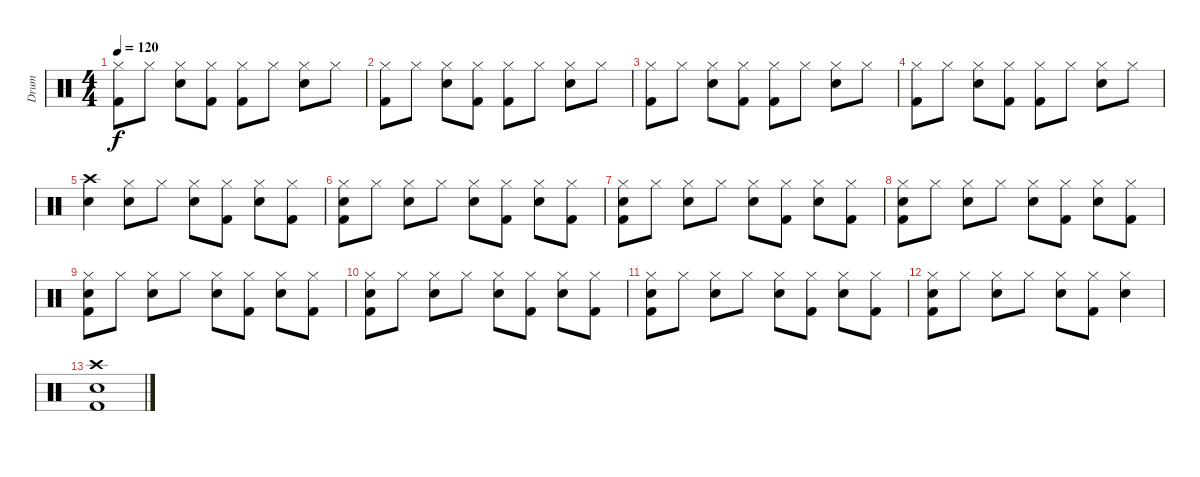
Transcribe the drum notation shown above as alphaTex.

\track ("Drum" "Drum") {instrument percussion}
\staff {score}
\articulation defaults
\ts (4 4)
\tempo 120
\clef neutral
\ks c
("Hi-Hat (closed)" "Kick (hit) 2").8{dy f} "Hi-Hat (closed)".8 ("Hi-Hat (closed)" "Snare (hit) 2").8 ("Hi-Hat (closed)" "Kick (hit) 2").8 ("Hi-Hat (closed)" "Kick (hit) 2").8 "Hi-Hat (closed)".8 ("Hi-Hat (closed)" "Snare (hit) 2").8 "Hi-Hat (closed)".8 |
("Hi-Hat (closed)" "Kick (hit) 2").8 "Hi-Hat (closed)".8 ("Hi-Hat (closed)" "Snare (hit) 2").8 ("Hi-Hat (closed)" "Kick (hit) 2").8 ("Hi-Hat (closed)" "Kick (hit) 2").8 "Hi-Hat (closed)".8 ("Hi-Hat (closed)" "Snare (hit) 2").8 "Hi-Hat (closed)".8 |
("Hi-Hat (closed)" "Kick (hit) 2").8 "Hi-Hat (closed)".8 ("Hi-Hat (closed)" "Snare (hit) 2").8 ("Hi-Hat (closed)" "Kick (hit) 2").8 ("Hi-Hat (closed)" "Kick (hit) 2").8 "Hi-Hat (closed)".8 ("Hi-Hat (closed)" "Snare (hit) 2").8 "Hi-Hat (closed)".8 |
("Hi-Hat (closed)" "Kick (hit) 2").8 "Hi-Hat (closed)".8 ("Hi-Hat (closed)" "Snare (hit) 2").8 ("Hi-Hat (closed)" "Kick (hit) 2").8 ("Hi-Hat (closed)" "Kick (hit) 2").8 "Hi-Hat (closed)".8 ("Hi-Hat (closed)" "Snare (hit) 2").8 "Hi-Hat (closed)".8 |
("Crash high (hit)" "Snare (hit) 2").4 ("Hi-Hat (closed)" "Snare (hit) 2").8 "Hi-Hat (closed)".8 ("Hi-Hat (closed)" "Snare (hit) 2").8 ("Hi-Hat (closed)" "Kick (hit) 2").8 ("Hi-Hat (closed)" "Snare (hit) 2").8 ("Hi-Hat (closed)" "Kick (hit) 2").8 |
("Hi-Hat (closed)" "Snare (hit) 2" "Kick (hit) 2").8 "Hi-Hat (closed)".8 ("Hi-Hat (closed)" "Snare (hit) 2").8 "Hi-Hat (closed)".8 ("Hi-Hat (closed)" "Snare (hit) 2").8 ("Hi-Hat (closed)" "Kick (hit) 2").8 ("Hi-Hat (closed)" "Snare (hit) 2").8 ("Hi-Hat (closed)" "Kick (hit) 2").8 |
("Hi-Hat (closed)" "Snare (hit) 2" "Kick (hit) 2").8 "Hi-Hat (closed)".8 ("Hi-Hat (closed)" "Snare (hit) 2").8 "Hi-Hat (closed)".8 ("Hi-Hat (closed)" "Snare (hit) 2").8 ("Hi-Hat (closed)" "Kick (hit) 2").8 ("Hi-Hat (closed)" "Snare (hit) 2").8 ("Hi-Hat (closed)" "Kick (hit) 2").8 |
("Hi-Hat (closed)" "Snare (hit) 2" "Kick (hit) 2").8 "Hi-Hat (closed)".8 ("Hi-Hat (closed)" "Snare (hit) 2").8 "Hi-Hat (closed)".8 ("Hi-Hat (closed)" "Snare (hit) 2").8 ("Hi-Hat (closed)" "Kick (hit) 2").8 ("Hi-Hat (closed)" "Snare (hit) 2").8 ("Hi-Hat (closed)" "Kick (hit) 2").8 |
("Hi-Hat (closed)" "Snare (hit) 2" "Kick (hit) 2").8 "Hi-Hat (closed)".8 ("Hi-Hat (closed)" "Snare (hit) 2").8 "Hi-Hat (closed)".8 ("Hi-Hat (closed)" "Snare (hit) 2").8 ("Hi-Hat (closed)" "Kick (hit) 2").8 ("Hi-Hat (closed)" "Snare (hit) 2").8 ("Hi-Hat (closed)" "Kick (hit) 2").8 |
("Hi-Hat (closed)" "Snare (hit) 2" "Kick (hit) 2").8 "Hi-Hat (closed)".8 ("Hi-Hat (closed)" "Snare (hit) 2").8 "Hi-Hat (closed)".8 ("Hi-Hat (closed)" "Snare (hit) 2").8 ("Hi-Hat (closed)" "Kick (hit) 2").8 ("Hi-Hat (closed)" "Snare (hit) 2").8 ("Hi-Hat (closed)" "Kick (hit) 2").8 |
("Hi-Hat (closed)" "Snare (hit) 2" "Kick (hit) 2").8 "Hi-Hat (closed)".8 ("Hi-Hat (closed)" "Snare (hit) 2").8 "Hi-Hat (closed)".8 ("Hi-Hat (closed)" "Snare (hit) 2").8 ("Hi-Hat (closed)" "Kick (hit) 2").8 ("Hi-Hat (closed)" "Snare (hit) 2").8 ("Hi-Hat (closed)" "Kick (hit) 2").8 |
("Hi-Hat (closed)" "Snare (hit) 2" "Kick (hit) 2").8 "Hi-Hat (closed)".8 ("Hi-Hat (closed)" "Snare (hit) 2").8 "Hi-Hat (closed)".8 ("Hi-Hat (closed)" "Snare (hit) 2").8 ("Hi-Hat (closed)" "Kick (hit) 2").8 ("Hi-Hat (closed)" "Snare (hit) 2").4 |
("Crash high (hit)" "Snare (hit) 2" "Kick (hit) 2").1
